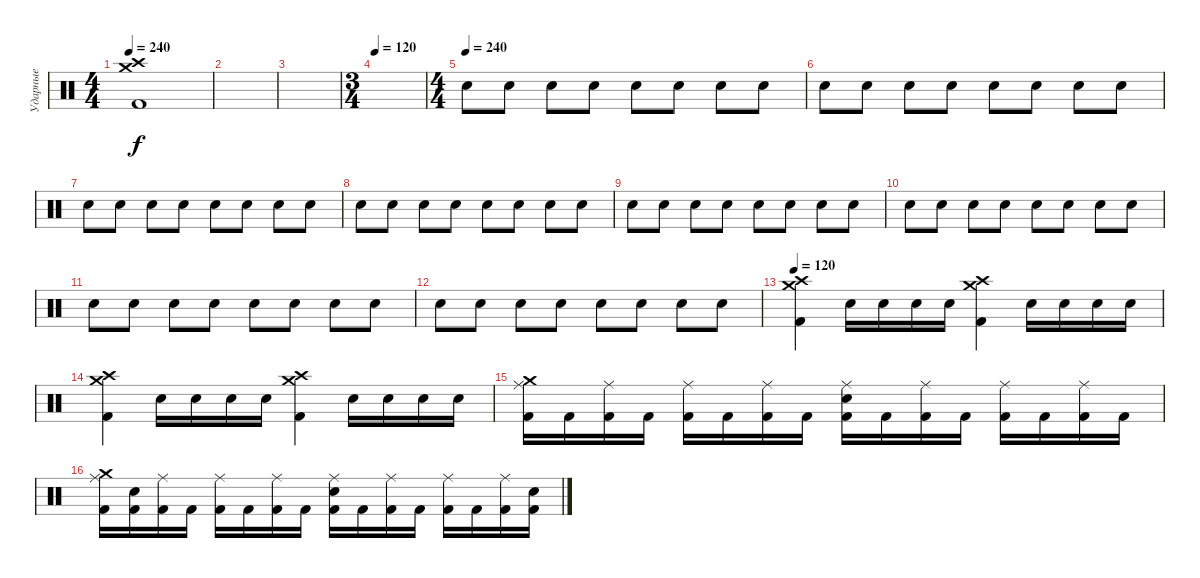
\track ("Ударные" "Ударные") {instrument percussion}
\staff {score}
\articulation defaults
\ts (4 4)
\tempo 240
\clef neutral
\ks c
("Kick (hit) 2" "Crash high (hit)" "Crash medium (hit)").1{dy f} |
|
|
\ts (3 4)
\tempo 120
|
\ts (4 4)
\tempo (240)
"Electric Snare (hit)".8 "Electric Snare (hit)".8 "Electric Snare (hit)".8 "Electric Snare (hit)".8 "Electric Snare (hit)".8 "Electric Snare (hit)".8 "Electric Snare (hit)".8 "Electric Snare (hit)".8 |
"Electric Snare (hit)".8 "Electric Snare (hit)".8 "Electric Snare (hit)".8 "Electric Snare (hit)".8 "Electric Snare (hit)".8 "Electric Snare (hit)".8 "Electric Snare (hit)".8 "Electric Snare (hit)".8 |
"Electric Snare (hit)".8 "Electric Snare (hit)".8 "Electric Snare (hit)".8 "Electric Snare (hit)".8 "Electric Snare (hit)".8 "Electric Snare (hit)".8 "Electric Snare (hit)".8 "Electric Snare (hit)".8 |
"Electric Snare (hit)".8 "Electric Snare (hit)".8 "Electric Snare (hit)".8 "Electric Snare (hit)".8 "Electric Snare (hit)".8 "Electric Snare (hit)".8 "Electric Snare (hit)".8 "Electric Snare (hit)".8 |
"Electric Snare (hit)".8 "Electric Snare (hit)".8 "Electric Snare (hit)".8 "Electric Snare (hit)".8 "Electric Snare (hit)".8 "Electric Snare (hit)".8 "Electric Snare (hit)".8 "Electric Snare (hit)".8 |
"Electric Snare (hit)".8 "Electric Snare (hit)".8 "Electric Snare (hit)".8 "Electric Snare (hit)".8 "Electric Snare (hit)".8 "Electric Snare (hit)".8 "Electric Snare (hit)".8 "Electric Snare (hit)".8 |
"Electric Snare (hit)".8 "Electric Snare (hit)".8 "Electric Snare (hit)".8 "Electric Snare (hit)".8 "Electric Snare (hit)".8 "Electric Snare (hit)".8 "Electric Snare (hit)".8 "Electric Snare (hit)".8 |
"Electric Snare (hit)".8 "Electric Snare (hit)".8 "Electric Snare (hit)".8 "Electric Snare (hit)".8 "Electric Snare (hit)".8 "Electric Snare (hit)".8 "Electric Snare (hit)".8 "Electric Snare (hit)".8 |
\tempo 120
("Kick (hit) 2" "Crash high (hit)" "Crash medium (hit)").4 "Electric Snare (hit)".16 "Electric Snare (hit)".16 "Electric Snare (hit)".16 "Electric Snare (hit)".16 ("Kick (hit) 2" "Crash high (hit)" "Crash medium (hit)").4 "Electric Snare (hit)".16 "Electric Snare (hit)".16 "Electric Snare (hit)".16 "Electric Snare (hit)".16 |
("Kick (hit) 2" "Crash high (hit)" "Crash medium (hit)").4 "Electric Snare (hit)".16 "Electric Snare (hit)".16 "Electric Snare (hit)".16 "Electric Snare (hit)".16 ("Kick (hit) 2" "Crash high (hit)" "Crash medium (hit)").4 "Electric Snare (hit)".16 "Electric Snare (hit)".16 "Electric Snare (hit)".16 "Electric Snare (hit)".16 |
("Kick (hit) 2" "Crash medium (hit)" "Ride (middle)").16 "Kick (hit) 2".16 ("Kick (hit) 2" "Ride (middle)").16 "Kick (hit) 2".16 ("Kick (hit) 2" "Ride (middle)").16 "Kick (hit) 2".16 ("Kick (hit) 2" "Ride (middle)").16 "Kick (hit) 2".16 ("Kick (hit) 2" "Ride (middle)" "Electric Snare (hit)").16 "Kick (hit) 2".16 ("Kick (hit) 2" "Ride (middle)").16 "Kick (hit) 2".16 ("Kick (hit) 2" "Ride (middle)").16 "Kick (hit) 2".16 ("Kick (hit) 2" "Ride (middle)").16 "Kick (hit) 2".16 |
("Kick (hit) 2" "Ride (middle)" "Crash medium (hit)").16 ("Kick (hit) 2" "Electric Snare (hit)").16 ("Kick (hit) 2" "Ride (middle)").16 "Kick (hit) 2".16 ("Kick (hit) 2" "Ride (middle)").16 "Kick (hit) 2".16 ("Kick (hit) 2" "Ride (middle)").16 "Kick (hit) 2".16 ("Kick (hit) 2" "Ride (middle)" "Electric Snare (hit)").16 "Kick (hit) 2".16 ("Kick (hit) 2" "Ride (middle)").16 "Kick (hit) 2".16 ("Kick (hit) 2" "Ride (middle)").16 "Kick (hit) 2".16 ("Kick (hit) 2" "Ride (middle)").16 ("Kick (hit) 2" "Electric Snare (hit)").16
